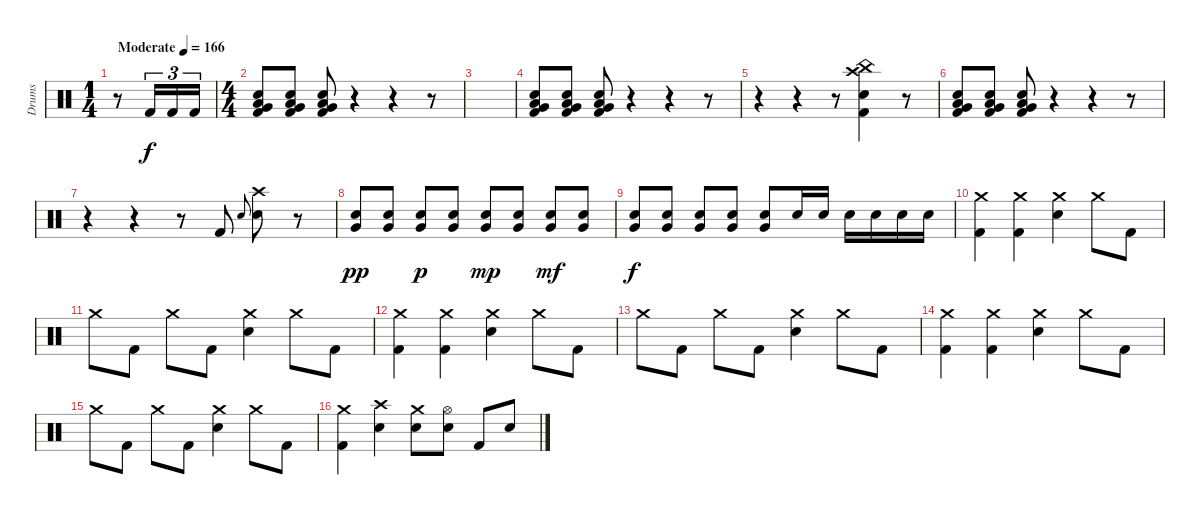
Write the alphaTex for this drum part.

\track ("Drums" "Drums") {instrument percussion}
\staff {score}
\articulation defaults
\ts (1 4)
\tempo (166 "Moderate")
\clef neutral
\ks c
r.8{dy f} "Kick (hit) 2".16{tu (3 2)} "Kick (hit) 2".16{tu (3 2)} "Kick (hit) 2".16{tu (3 2)} |
\ts (4 4)
("Very Low Tom (hit)" "Low Tom (hit)" "Electric Snare (hit)" "Kick (hit) 2").8 ("Very Low Tom (hit)" "Low Tom (hit)" "Electric Snare (hit)" "Kick (hit) 2").8 ("Very Low Tom (hit)" "Low Tom (hit)" "Electric Snare (hit)" "Kick (hit) 2").8 r.4 r.4 r.8 |
|
("Very Low Tom (hit)" "Low Tom (hit)" "Electric Snare (hit)" "Kick (hit) 2").8 ("Very Low Tom (hit)" "Low Tom (hit)" "Electric Snare (hit)" "Kick (hit) 2").8 ("Very Low Tom (hit)" "Low Tom (hit)" "Electric Snare (hit)" "Kick (hit) 2").8 r.4 r.4 r.8 |
r.4 r.4 r.8 ("Crash high (hit)" "China (hit)" "Electric Snare (hit)" "Kick (hit) 2").4 r.8 |
("Very Low Tom (hit)" "Low Tom (hit)" "Electric Snare (hit)" "Kick (hit) 2").8 ("Very Low Tom (hit)" "Low Tom (hit)" "Electric Snare (hit)" "Kick (hit) 2").8 ("Very Low Tom (hit)" "Low Tom (hit)" "Electric Snare (hit)" "Kick (hit) 2").8 r.4 r.4 r.8 |
r.4 r.4 r.8 "Kick (hit) 2".8 "Electric Snare (hit)".8{gr onbeat} ("Crash high (hit)" "Electric Snare (hit)").8 r.8 |
("Electric Snare (hit)" "Very Low Tom (hit)").8{dy pp} ("Electric Snare (hit)" "Very Low Tom (hit)").8 ("Electric Snare (hit)" "Very Low Tom (hit)").8{dy p} ("Electric Snare (hit)" "Very Low Tom (hit)").8 ("Electric Snare (hit)" "Very Low Tom (hit)").8{dy mp} ("Electric Snare (hit)" "Very Low Tom (hit)").8 ("Electric Snare (hit)" "Very Low Tom (hit)").8{dy mf} ("Electric Snare (hit)" "Very Low Tom (hit)").8 |
("Electric Snare (hit)" "Very Low Tom (hit)").8{dy f} ("Electric Snare (hit)" "Very Low Tom (hit)").8 ("Electric Snare (hit)" "Very Low Tom (hit)").8 ("Electric Snare (hit)" "Very Low Tom (hit)").8 ("Electric Snare (hit)" "Very Low Tom (hit)").8 "Electric Snare (hit)".16 "Electric Snare (hit)".16 "Electric Snare (hit)".16 "Electric Snare (hit)".16 "Electric Snare (hit)".16 "Electric Snare (hit)".16 |
("Crash medium (hit)" "Kick (hit) 2").4 ("Crash medium (hit)" "Kick (hit) 2").4 ("Crash medium (hit)" "Electric Snare (hit)").4 "Crash medium (hit)".8 "Kick (hit) 2".8 |
"Crash medium (hit)".8 "Kick (hit) 2".8 "Crash medium (hit)".8 "Kick (hit) 2".8 ("Crash medium (hit)" "Electric Snare (hit)").4 "Crash medium (hit)".8 "Kick (hit) 2".8 |
("Crash medium (hit)" "Kick (hit) 2").4 ("Crash medium (hit)" "Kick (hit) 2").4 ("Crash medium (hit)" "Electric Snare (hit)").4 "Crash medium (hit)".8 "Kick (hit) 2".8 |
"Crash medium (hit)".8 "Kick (hit) 2".8 "Crash medium (hit)".8 "Kick (hit) 2".8 ("Crash medium (hit)" "Electric Snare (hit)").4 "Crash medium (hit)".8 "Kick (hit) 2".8 |
("Crash medium (hit)" "Kick (hit) 2").4 ("Crash medium (hit)" "Kick (hit) 2").4 ("Crash medium (hit)" "Electric Snare (hit)").4 "Crash medium (hit)".8 "Kick (hit) 2".8 |
"Crash medium (hit)".8 "Kick (hit) 2".8 "Crash medium (hit)".8 "Kick (hit) 2".8 ("Crash medium (hit)" "Electric Snare (hit)").4 "Crash medium (hit)".8 "Kick (hit) 2".8 |
("Crash medium (hit)" "Kick (hit) 2").4 ("Crash high (hit)" "Electric Snare (hit)").4 ("Crash medium (hit)" "Electric Snare (hit)").8 ("Hi-Hat (open)" "Electric Snare (hit)").8 "Kick (hit) 2".8 "Electric Snare (hit)".8
